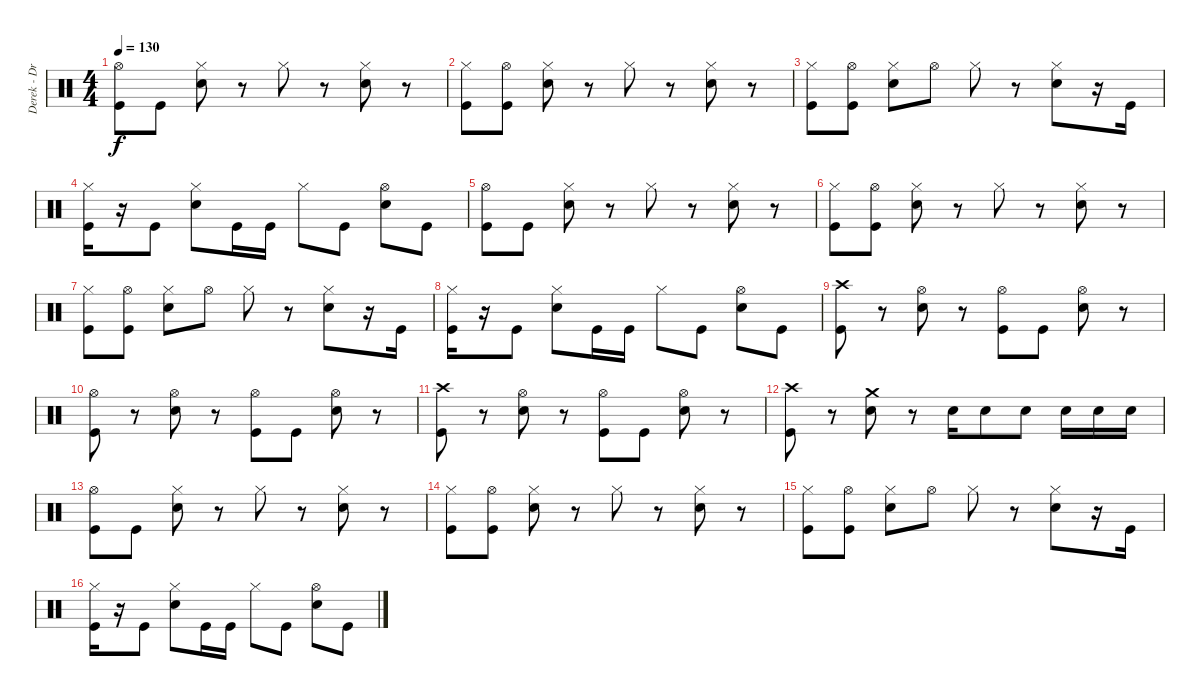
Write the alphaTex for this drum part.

\track ("Derek - Drums" "Derek - Dr") {instrument percussion}
\staff {score}
\articulation defaults
\ts (4 4)
\tempo 130
\clef neutral
\ks c
("Hi-Hat (open)" "Kick (hit)").8{dy f} "Kick (hit)".8 ("Hi-Hat (closed)" "Electric Snare (hit)").8 r.8 "Hi-Hat (closed)".8 r.8 ("Hi-Hat (closed)" "Electric Snare (hit)").8 r.8 |
("Hi-Hat (closed)" "Kick (hit)").8 ("Hi-Hat (open)" "Kick (hit)").8 ("Hi-Hat (closed)" "Electric Snare (hit)").8 r.8 "Hi-Hat (closed)".8 r.8 ("Hi-Hat (closed)" "Electric Snare (hit)").8 r.8 |
("Hi-Hat (closed)" "Kick (hit)").8 ("Hi-Hat (open)" "Kick (hit)").8 ("Hi-Hat (closed)" "Electric Snare (hit)").8 "Hi-Hat (open)".8 "Hi-Hat (closed)".8 r.8 ("Hi-Hat (closed)" "Electric Snare (hit)").8 r.16 "Kick (hit)".16 |
("Hi-Hat (closed)" "Kick (hit)").16 r.16 "Kick (hit)".8 ("Hi-Hat (closed)" "Electric Snare (hit)").8 "Kick (hit)".16 "Kick (hit)".16 "Hi-Hat (closed)".8 "Kick (hit)".8 ("Hi-Hat (open)" "Electric Snare (hit)").8 "Kick (hit)".8 |
("Hi-Hat (open)" "Kick (hit)").8 "Kick (hit)".8 ("Hi-Hat (closed)" "Electric Snare (hit)").8 r.8 "Hi-Hat (closed)".8 r.8 ("Hi-Hat (closed)" "Electric Snare (hit)").8 r.8 |
("Hi-Hat (closed)" "Kick (hit)").8 ("Hi-Hat (open)" "Kick (hit)").8 ("Hi-Hat (closed)" "Electric Snare (hit)").8 r.8 "Hi-Hat (closed)".8 r.8 ("Hi-Hat (closed)" "Electric Snare (hit)").8 r.8 |
("Hi-Hat (closed)" "Kick (hit)").8 ("Hi-Hat (open)" "Kick (hit)").8 ("Hi-Hat (closed)" "Electric Snare (hit)").8 "Hi-Hat (open)".8 "Hi-Hat (closed)".8 r.8 ("Hi-Hat (closed)" "Electric Snare (hit)").8 r.16 "Kick (hit)".16 |
("Hi-Hat (closed)" "Kick (hit)").16 r.16 "Kick (hit)".8 ("Hi-Hat (closed)" "Electric Snare (hit)").8 "Kick (hit)".16 "Kick (hit)".16 "Hi-Hat (closed)".8 "Kick (hit)".8 ("Hi-Hat (open)" "Electric Snare (hit)").8 "Kick (hit)".8 |
("Crash high (hit)" "Kick (hit)").8 r.8 ("Hi-Hat (open)" "Electric Snare (hit)").8 r.8 ("Hi-Hat (open)" "Kick (hit)").8 "Kick (hit)".8 ("Hi-Hat (open)" "Electric Snare (hit)").8 r.8 |
("Hi-Hat (open)" "Kick (hit)").8 r.8 ("Hi-Hat (open)" "Electric Snare (hit)").8 r.8 ("Hi-Hat (open)" "Kick (hit)").8 "Kick (hit)".8 ("Hi-Hat (open)" "Electric Snare (hit)").8 r.8 |
("Crash high (hit)" "Kick (hit)").8 r.8 ("Hi-Hat (open)" "Electric Snare (hit)").8 r.8 ("Hi-Hat (open)" "Kick (hit)").8 "Kick (hit)".8 ("Hi-Hat (open)" "Electric Snare (hit)").8 r.8 |
("Crash high (hit)" "Kick (hit)").8 r.8 ("Crash medium (hit)" "Electric Snare (hit)").8 r.8 "Electric Snare (hit)".16 "Electric Snare (hit)".8 "Electric Snare (hit)".8 "Electric Snare (hit)".16 "Electric Snare (hit)".16 "Electric Snare (hit)".16 |
("Hi-Hat (open)" "Kick (hit)").8 "Kick (hit)".8 ("Hi-Hat (closed)" "Electric Snare (hit)").8 r.8 "Hi-Hat (closed)".8 r.8 ("Hi-Hat (closed)" "Electric Snare (hit)").8 r.8 |
("Hi-Hat (closed)" "Kick (hit)").8 ("Hi-Hat (open)" "Kick (hit)").8 ("Hi-Hat (closed)" "Electric Snare (hit)").8 r.8 "Hi-Hat (closed)".8 r.8 ("Hi-Hat (closed)" "Electric Snare (hit)").8 r.8 |
("Hi-Hat (closed)" "Kick (hit)").8 ("Hi-Hat (open)" "Kick (hit)").8 ("Hi-Hat (closed)" "Electric Snare (hit)").8 "Hi-Hat (open)".8 "Hi-Hat (closed)".8 r.8 ("Hi-Hat (closed)" "Electric Snare (hit)").8 r.16 "Kick (hit)".16 |
("Hi-Hat (closed)" "Kick (hit)").16 r.16 "Kick (hit)".8 ("Hi-Hat (closed)" "Electric Snare (hit)").8 "Kick (hit)".16 "Kick (hit)".16 "Hi-Hat (closed)".8 "Kick (hit)".8 ("Hi-Hat (open)" "Electric Snare (hit)").8 "Kick (hit)".8
